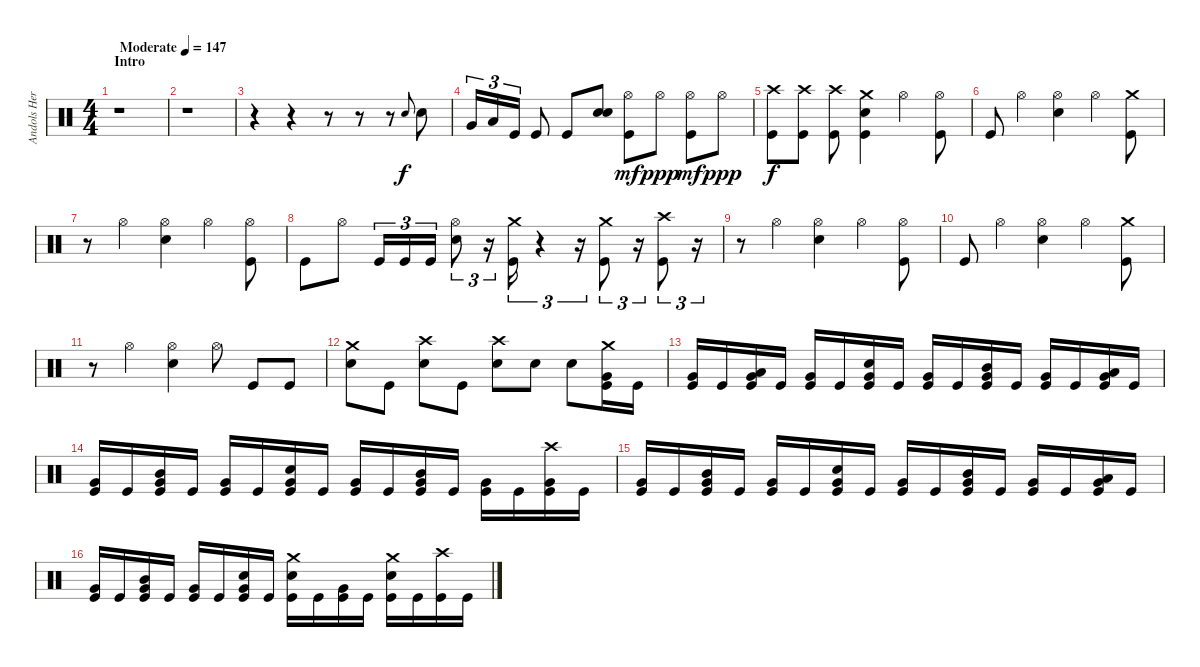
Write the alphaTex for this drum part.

\track ("Andols Herrick" "Andols Her") {instrument percussion}
\staff
\articulation defaults
\ts (4 4)
\section ("" "Intro")
\tempo (147 "Moderate")
\clef neutral
\ks c
r.1{dy f} |
r.1 |
r.4 r.4 r.8 r.8 r.8 "Electric Snare (hit)".8{gr onbeat} "Electric Snare (hit)".8 |
"Very Low Tom (hit)".16{tu (3 2)} "Low Floor Tom (hit)".16{tu (3 2)} "Kick (hit)".16{tu (3 2)} "Kick (hit)".8 "Kick (hit)".8 ("Electric Snare (hit)" "Electric Snare (hit)").8 ("Hi-Hat (open)" "Kick (hit)").8{dy mf} "Hi-Hat (open)".8{dy ppp} ("Hi-Hat (open)" "Kick (hit)").8{dy mf} "Hi-Hat (open)".8{dy ppp} |
("Crash high (hit)" "Kick (hit)").8{dy f} ("Crash high (hit)" "Kick (hit)").8 ("Crash high (hit)" "Kick (hit)").8 ("Crash medium (hit)" "Electric Snare (hit)" "Kick (hit)").4 "Hi-Hat (open)".4 ("Hi-Hat (open)" "Kick (hit)").8 |
"Kick (hit)".8 "Hi-Hat (open)".4 ("Hi-Hat (open)" "Electric Snare (hit)").4 "Hi-Hat (open)".4 ("Crash medium (hit)" "Kick (hit)").8 |
r.8 "Hi-Hat (open)".4 ("Hi-Hat (open)" "Electric Snare (hit)").4 "Hi-Hat (open)".4 ("Hi-Hat (open)" "Kick (hit)").8 |
"Kick (hit)".8 "Hi-Hat (open)".8 "Kick (hit)".16{tu (3 2)} "Kick (hit)".16{tu (3 2)} "Kick (hit)".16{tu (3 2)} ("Hi-Hat (open)" "Electric Snare (hit)").8{tu (3 2)} r.16{tu (3 2)} ("Crash medium (hit)" "Kick (hit)").16{tu (3 2)} r.4{tu (3 2)} r.16{tu (3 2)} ("Crash medium (hit)" "Kick (hit)").8{tu (3 2)} r.16{tu (3 2)} ("Crash high (hit)" "Kick (hit)").8{tu (3 2)} r.16{tu (3 2)} |
r.8 "Hi-Hat (open)".4 ("Hi-Hat (open)" "Electric Snare (hit)").4 "Hi-Hat (open)".4 ("Hi-Hat (open)" "Kick (hit)").8 |
"Kick (hit)".8 "Hi-Hat (open)".4 ("Hi-Hat (open)" "Electric Snare (hit)").4 "Hi-Hat (open)".4 ("Crash medium (hit)" "Kick (hit)").8 |
r.8 "Hi-Hat (open)".4 ("Hi-Hat (open)" "Electric Snare (hit)").4 "Hi-Hat (open)".8 "Kick (hit)".8 "Kick (hit)".8 |
("Crash medium (hit)" "Electric Snare (hit)").8 "Kick (hit)".8 ("Crash high (hit)" "Electric Snare (hit)").8 "Kick (hit)".8 ("Crash high (hit)" "Electric Snare (hit)").8 "Electric Snare (hit)".8 "Electric Snare (hit)".8 ("Crash medium (hit)" "Very Low Tom (hit)" "Kick (hit)").16 "Kick (hit)".16 |
("Very Low Tom (hit)" "Kick (hit)").16 "Kick (hit)".16 ("Low Tom (hit)" "Very Low Tom (hit)" "Kick (hit)").16 "Kick (hit)".16 ("Very Low Tom (hit)" "Kick (hit)").16 "Kick (hit)".16 ("Electric Snare (hit)" "Very Low Tom (hit)" "Kick (hit)").16 "Kick (hit)".16 ("Very Low Tom (hit)" "Kick (hit)").16 "Kick (hit)".16 ("Mid Tom (hit)" "Very Low Tom (hit)" "Kick (hit)").16 "Kick (hit)".16 ("Very Low Tom (hit)" "Kick (hit)").16 "Kick (hit)".16 ("Low Tom (hit)" "Very Low Tom (hit)" "Kick (hit)").16 "Kick (hit)".16 |
("Very Low Tom (hit)" "Kick (hit)").16 "Kick (hit)".16 ("Mid Tom (hit)" "Very Low Tom (hit)" "Kick (hit)").16 "Kick (hit)".16 ("Very Low Tom (hit)" "Kick (hit)").16 "Kick (hit)".16 ("Electric Snare (hit)" "Very Low Tom (hit)" "Kick (hit)").16 "Kick (hit)".16 ("Very Low Tom (hit)" "Kick (hit)").16 "Kick (hit)".16 ("Mid Tom (hit)" "Very Low Tom (hit)" "Kick (hit)").16 "Kick (hit)".16 ("Very Low Tom (hit)" "Kick (hit)").16 "Kick (hit)".16 ("Crash high (hit)" "Very Low Tom (hit)" "Kick (hit)").16 "Kick (hit)".16 |
("Very Low Tom (hit)" "Kick (hit)").16 "Kick (hit)".16 ("Mid Tom (hit)" "Very Low Tom (hit)" "Kick (hit)").16 "Kick (hit)".16 ("Very Low Tom (hit)" "Kick (hit)").16 "Kick (hit)".16 ("Electric Snare (hit)" "Very Low Tom (hit)" "Kick (hit)").16 "Kick (hit)".16 ("Very Low Tom (hit)" "Kick (hit)").16 "Kick (hit)".16 ("Mid Tom (hit)" "Very Low Tom (hit)" "Kick (hit)").16 "Kick (hit)".16 ("Very Low Tom (hit)" "Kick (hit)").16 "Kick (hit)".16 ("Low Tom (hit)" "Very Low Tom (hit)" "Kick (hit)").16 "Kick (hit)".16 |
("Very Low Tom (hit)" "Kick (hit)").16 "Kick (hit)".16 ("Mid Tom (hit)" "Very Low Tom (hit)" "Kick (hit)").16 "Kick (hit)".16 ("Very Low Tom (hit)" "Kick (hit)").16 "Kick (hit)".16 ("Electric Snare (hit)" "Very Low Tom (hit)" "Kick (hit)").16 "Kick (hit)".16 ("Crash medium (hit)" "Electric Snare (hit)" "Kick (hit)").16 "Kick (hit)".16 ("Very Low Tom (hit)" "Kick (hit)").16 "Kick (hit)".16 ("Crash medium (hit)" "Electric Snare (hit)" "Kick (hit)").16 "Kick (hit)".16 ("Crash high (hit)" "Kick (hit)").16 "Kick (hit)".16
